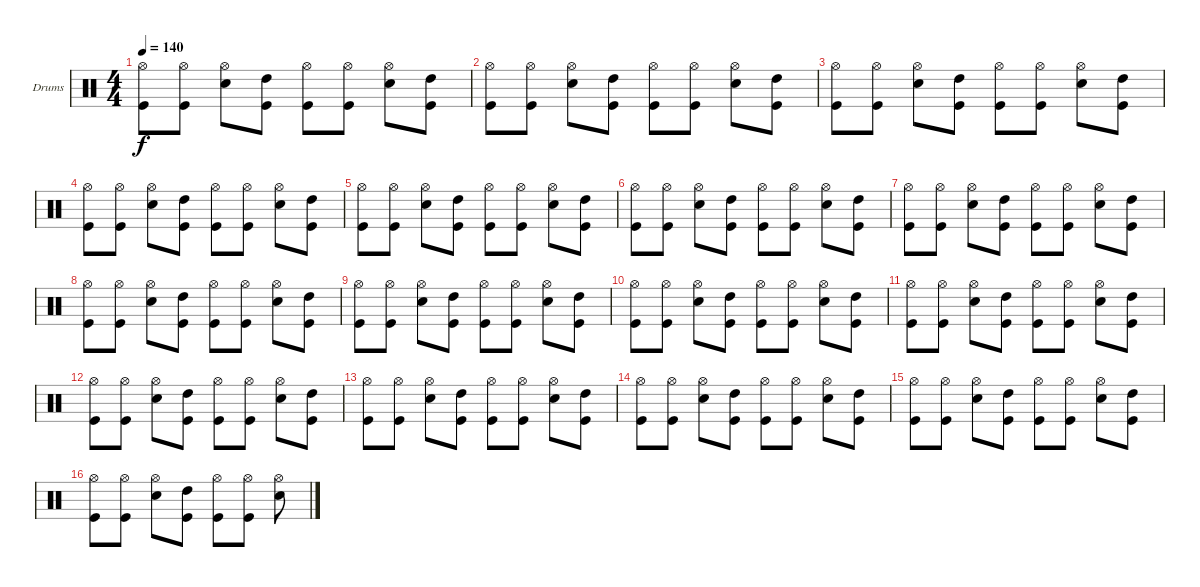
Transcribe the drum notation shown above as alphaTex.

\bracketExtendMode groupsimilarinstruments
\firstSystemTrackNameOrientation horizontal
\otherSystemsTrackNameOrientation horizontal
\track ("Drumkit" "Drums") {instrument percussion}
\staff {score}
\articulation defaults
\ts (4 4)
\tempo 140
\clef neutral
\ks c
("Hi-Hat (open)" "Kick (hit)").8{dy f} ("Hi-Hat (open)" "Kick (hit)").8 ("Hi-Hat (open)" "Snare (hit) 2").8 ("High Tom (hit)" "Kick (hit)").8 ("Hi-Hat (open)" "Kick (hit)").8 ("Hi-Hat (open)" "Kick (hit)").8 ("Hi-Hat (open)" "Snare (hit) 2").8 ("High Tom (hit)" "Kick (hit)").8 |
("Hi-Hat (open)" "Kick (hit)").8 ("Hi-Hat (open)" "Kick (hit)").8 ("Hi-Hat (open)" "Snare (hit) 2").8 ("High Tom (hit)" "Kick (hit)").8 ("Hi-Hat (open)" "Kick (hit)").8 ("Hi-Hat (open)" "Kick (hit)").8 ("Hi-Hat (open)" "Snare (hit) 2").8 ("High Tom (hit)" "Kick (hit)").8 |
("Hi-Hat (open)" "Kick (hit)").8 ("Hi-Hat (open)" "Kick (hit)").8 ("Hi-Hat (open)" "Snare (hit) 2").8 ("High Tom (hit)" "Kick (hit)").8 ("Hi-Hat (open)" "Kick (hit)").8 ("Hi-Hat (open)" "Kick (hit)").8 ("Hi-Hat (open)" "Snare (hit) 2").8 ("High Tom (hit)" "Kick (hit)").8 |
("Hi-Hat (open)" "Kick (hit)").8 ("Hi-Hat (open)" "Kick (hit)").8 ("Hi-Hat (open)" "Snare (hit) 2").8 ("High Tom (hit)" "Kick (hit)").8 ("Hi-Hat (open)" "Kick (hit)").8 ("Hi-Hat (open)" "Kick (hit)").8 ("Hi-Hat (open)" "Snare (hit) 2").8 ("High Tom (hit)" "Kick (hit)").8 |
("Hi-Hat (open)" "Kick (hit)").8 ("Hi-Hat (open)" "Kick (hit)").8 ("Hi-Hat (open)" "Snare (hit) 2").8 ("High Tom (hit)" "Kick (hit)").8 ("Hi-Hat (open)" "Kick (hit)").8 ("Hi-Hat (open)" "Kick (hit)").8 ("Hi-Hat (open)" "Snare (hit) 2").8 ("High Tom (hit)" "Kick (hit)").8 |
("Hi-Hat (open)" "Kick (hit)").8 ("Hi-Hat (open)" "Kick (hit)").8 ("Hi-Hat (open)" "Snare (hit) 2").8 ("High Tom (hit)" "Kick (hit)").8 ("Hi-Hat (open)" "Kick (hit)").8 ("Hi-Hat (open)" "Kick (hit)").8 ("Hi-Hat (open)" "Snare (hit) 2").8 ("High Tom (hit)" "Kick (hit)").8 |
("Hi-Hat (open)" "Kick (hit)").8 ("Hi-Hat (open)" "Kick (hit)").8 ("Hi-Hat (open)" "Snare (hit) 2").8 ("High Tom (hit)" "Kick (hit)").8 ("Hi-Hat (open)" "Kick (hit)").8 ("Hi-Hat (open)" "Kick (hit)").8 ("Hi-Hat (open)" "Snare (hit) 2").8 ("High Tom (hit)" "Kick (hit)").8 |
("Hi-Hat (open)" "Kick (hit)").8 ("Hi-Hat (open)" "Kick (hit)").8 ("Hi-Hat (open)" "Snare (hit) 2").8 ("High Tom (hit)" "Kick (hit)").8 ("Hi-Hat (open)" "Kick (hit)").8 ("Hi-Hat (open)" "Kick (hit)").8 ("Hi-Hat (open)" "Snare (hit) 2").8 ("High Tom (hit)" "Kick (hit)").8 |
("Hi-Hat (open)" "Kick (hit)").8 ("Hi-Hat (open)" "Kick (hit)").8 ("Hi-Hat (open)" "Snare (hit) 2").8 ("High Tom (hit)" "Kick (hit)").8 ("Hi-Hat (open)" "Kick (hit)").8 ("Hi-Hat (open)" "Kick (hit)").8 ("Hi-Hat (open)" "Snare (hit) 2").8 ("High Tom (hit)" "Kick (hit)").8 |
("Hi-Hat (open)" "Kick (hit)").8 ("Hi-Hat (open)" "Kick (hit)").8 ("Hi-Hat (open)" "Snare (hit) 2").8 ("High Tom (hit)" "Kick (hit)").8 ("Hi-Hat (open)" "Kick (hit)").8 ("Hi-Hat (open)" "Kick (hit)").8 ("Hi-Hat (open)" "Snare (hit) 2").8 ("High Tom (hit)" "Kick (hit)").8 |
("Hi-Hat (open)" "Kick (hit)").8 ("Hi-Hat (open)" "Kick (hit)").8 ("Hi-Hat (open)" "Snare (hit) 2").8 ("High Tom (hit)" "Kick (hit)").8 ("Hi-Hat (open)" "Kick (hit)").8 ("Hi-Hat (open)" "Kick (hit)").8 ("Hi-Hat (open)" "Snare (hit) 2").8 ("High Tom (hit)" "Kick (hit)").8 |
("Hi-Hat (open)" "Kick (hit)").8 ("Hi-Hat (open)" "Kick (hit)").8 ("Hi-Hat (open)" "Snare (hit) 2").8 ("High Tom (hit)" "Kick (hit)").8 ("Hi-Hat (open)" "Kick (hit)").8 ("Hi-Hat (open)" "Kick (hit)").8 ("Hi-Hat (open)" "Snare (hit) 2").8 ("High Tom (hit)" "Kick (hit)").8 |
("Hi-Hat (open)" "Kick (hit)").8 ("Hi-Hat (open)" "Kick (hit)").8 ("Hi-Hat (open)" "Snare (hit) 2").8 ("High Tom (hit)" "Kick (hit)").8 ("Hi-Hat (open)" "Kick (hit)").8 ("Hi-Hat (open)" "Kick (hit)").8 ("Hi-Hat (open)" "Snare (hit) 2").8 ("High Tom (hit)" "Kick (hit)").8 |
("Hi-Hat (open)" "Kick (hit)").8 ("Hi-Hat (open)" "Kick (hit)").8 ("Hi-Hat (open)" "Snare (hit) 2").8 ("High Tom (hit)" "Kick (hit)").8 ("Hi-Hat (open)" "Kick (hit)").8 ("Hi-Hat (open)" "Kick (hit)").8 ("Hi-Hat (open)" "Snare (hit) 2").8 ("High Tom (hit)" "Kick (hit)").8 |
("Hi-Hat (open)" "Kick (hit)").8 ("Hi-Hat (open)" "Kick (hit)").8 ("Hi-Hat (open)" "Snare (hit) 2").8 ("High Tom (hit)" "Kick (hit)").8 ("Hi-Hat (open)" "Kick (hit)").8 ("Hi-Hat (open)" "Kick (hit)").8 ("Hi-Hat (open)" "Snare (hit) 2").8 ("High Tom (hit)" "Kick (hit)").8 |
("Hi-Hat (open)" "Kick (hit)").8 ("Hi-Hat (open)" "Kick (hit)").8 ("Hi-Hat (open)" "Snare (hit) 2").8 ("High Tom (hit)" "Kick (hit)").8 ("Hi-Hat (open)" "Kick (hit)").8 ("Hi-Hat (open)" "Kick (hit)").8 ("Hi-Hat (open)" "Snare (hit) 2").8
